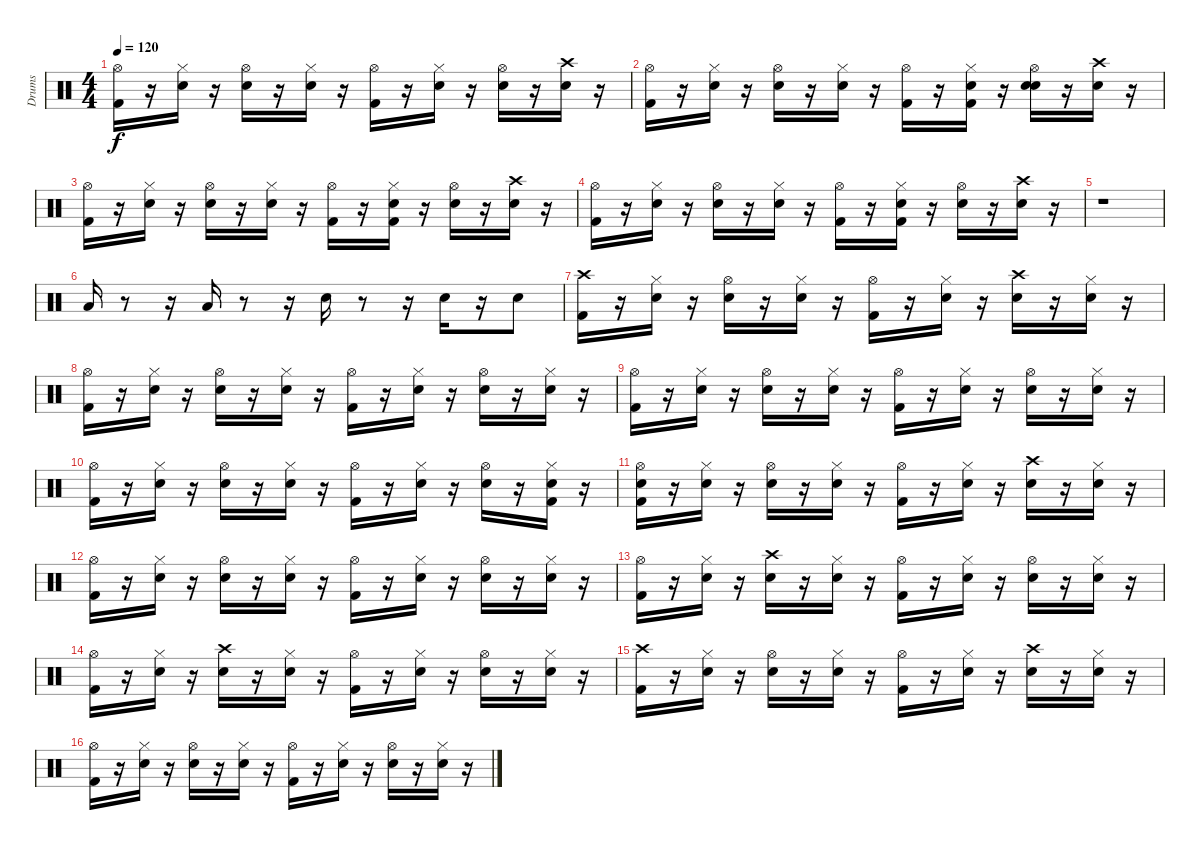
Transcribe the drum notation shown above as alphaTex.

\track ("Drums" "Drums") {instrument percussion}
\staff {score}
\articulation defaults
\ts (4 4)
\tempo 120
\clef neutral
\ks c
("Kick (hit) 2" "Hi-Hat (open)").16{dy f} r.16 ("Snare (hit)" "Hi-Hat (closed)").16 r.16 ("Electric Snare (hit)" "Hi-Hat (open)").16 r.16 ("Snare (hit)" "Hi-Hat (closed)").16 r.16 ("Kick (hit) 2" "Hi-Hat (open)").16 r.16 ("Snare (hit)" "Hi-Hat (closed)").16 r.16 ("Electric Snare (hit)" "Hi-Hat (open)").16 r.16 ("Snare (hit)" "Crash high (hit)").16 r.16 |
("Kick (hit) 2" "Hi-Hat (open)").16 r.16 ("Snare (hit)" "Hi-Hat (closed)").16 r.16 ("Electric Snare (hit)" "Hi-Hat (open)").16 r.16 ("Snare (hit)" "Hi-Hat (closed)").16 r.16 ("Kick (hit) 2" "Hi-Hat (open)").16 r.16 ("Snare (hit)" "Kick (hit) 2" "Hi-Hat (closed)").16 r.16 ("Snare (hit)" "Electric Snare (hit)" "Hi-Hat (open)").16 r.16 ("Snare (hit)" "Crash high (hit)").16 r.16 |
("Kick (hit) 2" "Hi-Hat (open)").16 r.16 ("Snare (hit)" "Hi-Hat (closed)").16 r.16 ("Electric Snare (hit)" "Hi-Hat (open)").16 r.16 ("Snare (hit)" "Hi-Hat (closed)").16 r.16 ("Kick (hit) 2" "Hi-Hat (open)").16 r.16 ("Snare (hit)" "Kick (hit) 2" "Hi-Hat (closed)").16 r.16 ("Electric Snare (hit)" "Hi-Hat (open)").16 r.16 ("Snare (hit)" "Crash high (hit)").16 r.16 |
("Kick (hit) 2" "Hi-Hat (open)").16 r.16 ("Snare (hit)" "Hi-Hat (closed)").16 r.16 ("Electric Snare (hit)" "Hi-Hat (open)").16 r.16 ("Snare (hit)" "Hi-Hat (closed)").16 r.16 ("Kick (hit) 2" "Hi-Hat (open)").16 r.16 ("Snare (hit)" "Kick (hit) 2" "Hi-Hat (closed)").16 r.16 ("Electric Snare (hit)" "Hi-Hat (open)").16 r.16 ("Snare (hit)" "Crash high (hit)").16 r.16 |
r.1 |
"Low Floor Tom (hit)".16 r.8 r.16 "Low Floor Tom (hit)".16 r.8 r.16 "Electric Snare (hit)".16 r.8 r.16 "Electric Snare (hit)".16 r.16 "Electric Snare (hit)".8 |
("Kick (hit) 2" "Crash high (hit)").16 r.16 ("Snare (hit)" "Hi-Hat (closed)").16 r.16 ("Electric Snare (hit)" "Hi-Hat (open)").16 r.16 ("Snare (hit)" "Hi-Hat (closed)").16 r.16 ("Kick (hit) 2" "Hi-Hat (open)").16 r.16 ("Snare (hit)" "Hi-Hat (closed)").16 r.16 ("Electric Snare (hit)" "Crash high (hit)").16 r.16 ("Snare (hit)" "Hi-Hat (closed)").16 r.16 |
("Kick (hit) 2" "Hi-Hat (open)").16 r.16 ("Snare (hit)" "Hi-Hat (closed)").16 r.16 ("Electric Snare (hit)" "Hi-Hat (open)").16 r.16 ("Snare (hit)" "Hi-Hat (closed)").16 r.16 ("Kick (hit) 2" "Hi-Hat (open)").16 r.16 ("Snare (hit)" "Hi-Hat (closed)").16 r.16 ("Electric Snare (hit)" "Hi-Hat (open)").16 r.16 ("Snare (hit)" "Hi-Hat (closed)").16 r.16 |
("Kick (hit) 2" "Hi-Hat (open)").16 r.16 ("Snare (hit)" "Hi-Hat (closed)").16 r.16 ("Electric Snare (hit)" "Hi-Hat (open)").16 r.16 ("Snare (hit)" "Hi-Hat (closed)").16 r.16 ("Kick (hit) 2" "Hi-Hat (open)").16 r.16 ("Snare (hit)" "Hi-Hat (closed)").16 r.16 ("Electric Snare (hit)" "Hi-Hat (open)").16 r.16 ("Snare (hit)" "Hi-Hat (closed)").16 r.16 |
("Kick (hit) 2" "Hi-Hat (open)").16 r.16 ("Snare (hit)" "Hi-Hat (closed)").16 r.16 ("Electric Snare (hit)" "Hi-Hat (open)").16 r.16 ("Snare (hit)" "Hi-Hat (closed)").16 r.16 ("Kick (hit) 2" "Hi-Hat (open)").16 r.16 ("Snare (hit)" "Hi-Hat (closed)").16 r.16 ("Electric Snare (hit)" "Hi-Hat (open)").16 r.16 ("Snare (hit)" "Kick (hit) 2" "Hi-Hat (closed)").16 r.16 |
("Snare (hit)" "Kick (hit) 2" "Hi-Hat (open)").16 r.16 ("Snare (hit)" "Hi-Hat (closed)").16 r.16 ("Electric Snare (hit)" "Hi-Hat (open)").16 r.16 ("Snare (hit)" "Hi-Hat (closed)").16 r.16 ("Kick (hit) 2" "Hi-Hat (open)").16 r.16 ("Snare (hit)" "Hi-Hat (closed)").16 r.16 ("Electric Snare (hit)" "Crash high (hit)").16 r.16 ("Snare (hit)" "Hi-Hat (closed)").16 r.16 |
("Kick (hit) 2" "Hi-Hat (open)").16 r.16 ("Snare (hit)" "Hi-Hat (closed)").16 r.16 ("Electric Snare (hit)" "Hi-Hat (open)").16 r.16 ("Snare (hit)" "Hi-Hat (closed)").16 r.16 ("Kick (hit) 2" "Hi-Hat (open)").16 r.16 ("Snare (hit)" "Hi-Hat (closed)").16 r.16 ("Electric Snare (hit)" "Hi-Hat (open)").16 r.16 ("Snare (hit)" "Hi-Hat (closed)").16 r.16 |
("Kick (hit) 2" "Hi-Hat (open)").16 r.16 ("Snare (hit)" "Hi-Hat (closed)").16 r.16 ("Electric Snare (hit)" "Crash high (hit)").16 r.16 ("Snare (hit)" "Hi-Hat (closed)").16 r.16 ("Kick (hit) 2" "Hi-Hat (open)").16 r.16 ("Snare (hit)" "Hi-Hat (closed)").16 r.16 ("Electric Snare (hit)" "Hi-Hat (open)").16 r.16 ("Snare (hit)" "Hi-Hat (closed)").16 r.16 |
("Kick (hit) 2" "Hi-Hat (open)").16 r.16 ("Snare (hit)" "Hi-Hat (closed)").16 r.16 ("Electric Snare (hit)" "Crash high (hit)").16 r.16 ("Snare (hit)" "Hi-Hat (closed)").16 r.16 ("Kick (hit) 2" "Hi-Hat (open)").16 r.16 ("Snare (hit)" "Hi-Hat (closed)").16 r.16 ("Electric Snare (hit)" "Hi-Hat (open)").16 r.16 ("Snare (hit)" "Hi-Hat (closed)").16 r.16 |
("Kick (hit) 2" "Crash high (hit)").16 r.16 ("Snare (hit)" "Hi-Hat (closed)").16 r.16 ("Electric Snare (hit)" "Hi-Hat (open)").16 r.16 ("Snare (hit)" "Hi-Hat (closed)").16 r.16 ("Kick (hit) 2" "Hi-Hat (open)").16 r.16 ("Snare (hit)" "Hi-Hat (closed)").16 r.16 ("Electric Snare (hit)" "Crash high (hit)").16 r.16 ("Snare (hit)" "Hi-Hat (closed)").16 r.16 |
("Kick (hit) 2" "Hi-Hat (open)").16 r.16 ("Snare (hit)" "Hi-Hat (closed)").16 r.16 ("Electric Snare (hit)" "Hi-Hat (open)").16 r.16 ("Snare (hit)" "Hi-Hat (closed)").16 r.16 ("Kick (hit) 2" "Hi-Hat (open)").16 r.16 ("Snare (hit)" "Hi-Hat (closed)").16 r.16 ("Electric Snare (hit)" "Hi-Hat (open)").16 r.16 ("Snare (hit)" "Hi-Hat (closed)").16 r.16
